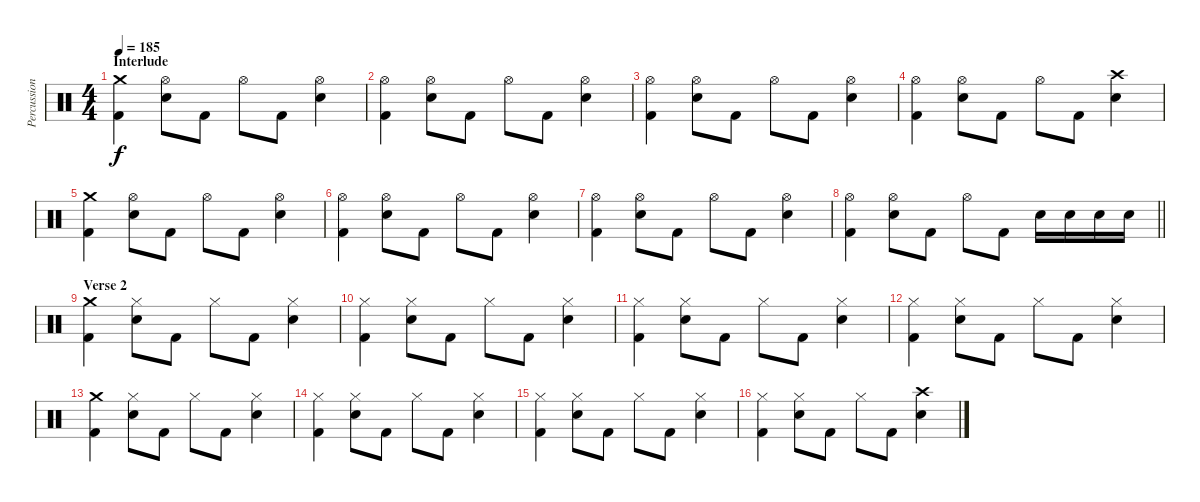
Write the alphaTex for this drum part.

\track ("Percussions" "Percussion") {instrument percussion}
\staff {score}
\articulation defaults
\ts (4 4)
\section ("" "Interlude")
\tempo 185
\clef neutral
\ks c
("Crash medium (hit)" "Kick (hit) 2").4{dy f} ("Hi-Hat (open)" "Electric Snare (hit)").8 "Kick (hit) 2".8 "Hi-Hat (open)".8 "Kick (hit) 2".8 ("Hi-Hat (open)" "Electric Snare (hit)").4 |
("Hi-Hat (open)" "Kick (hit) 2").4 ("Hi-Hat (open)" "Electric Snare (hit)").8 "Kick (hit) 2".8 "Hi-Hat (open)".8 "Kick (hit) 2".8 ("Hi-Hat (open)" "Electric Snare (hit)").4 |
("Hi-Hat (open)" "Kick (hit) 2").4 ("Hi-Hat (open)" "Electric Snare (hit)").8 "Kick (hit) 2".8 "Hi-Hat (open)".8 "Kick (hit) 2".8 ("Hi-Hat (open)" "Electric Snare (hit)").4 |
("Hi-Hat (open)" "Kick (hit) 2").4 ("Hi-Hat (open)" "Electric Snare (hit)").8 "Kick (hit) 2".8 "Hi-Hat (open)".8 "Kick (hit) 2".8 ("Crash high (hit)" "Electric Snare (hit)").4 |
("Crash medium (hit)" "Kick (hit) 2").4 ("Hi-Hat (open)" "Electric Snare (hit)").8 "Kick (hit) 2".8 "Hi-Hat (open)".8 "Kick (hit) 2".8 ("Hi-Hat (open)" "Electric Snare (hit)").4 |
("Hi-Hat (open)" "Kick (hit) 2").4 ("Hi-Hat (open)" "Electric Snare (hit)").8 "Kick (hit) 2".8 "Hi-Hat (open)".8 "Kick (hit) 2".8 ("Hi-Hat (open)" "Electric Snare (hit)").4 |
("Hi-Hat (open)" "Kick (hit) 2").4 ("Hi-Hat (open)" "Electric Snare (hit)").8 "Kick (hit) 2".8 "Hi-Hat (open)".8 "Kick (hit) 2".8 ("Hi-Hat (open)" "Electric Snare (hit)").4 |
\barLineRight lightlight
("Hi-Hat (open)" "Kick (hit) 2").4 ("Hi-Hat (open)" "Electric Snare (hit)").8 "Kick (hit) 2".8 "Hi-Hat (open)".8 "Kick (hit) 2".8 "Electric Snare (hit)".16 "Electric Snare (hit)".16 "Electric Snare (hit)".16 "Electric Snare (hit)".16 |
\section ("" "Verse 2")
("Crash medium (hit)" "Kick (hit) 2").4 ("Hi-Hat (closed)" "Electric Snare (hit)").8 "Kick (hit) 2".8 "Hi-Hat (closed)".8 "Kick (hit) 2".8 ("Hi-Hat (closed)" "Electric Snare (hit)").4 |
("Hi-Hat (closed)" "Kick (hit) 2").4 ("Hi-Hat (closed)" "Electric Snare (hit)").8 "Kick (hit) 2".8 "Hi-Hat (closed)".8 "Kick (hit) 2".8 ("Hi-Hat (closed)" "Electric Snare (hit)").4 |
("Hi-Hat (closed)" "Kick (hit) 2").4 ("Hi-Hat (closed)" "Electric Snare (hit)").8 "Kick (hit) 2".8 "Hi-Hat (closed)".8 "Kick (hit) 2".8 ("Hi-Hat (closed)" "Electric Snare (hit)").4 |
("Hi-Hat (closed)" "Kick (hit) 2").4 ("Hi-Hat (closed)" "Electric Snare (hit)").8 "Kick (hit) 2".8 "Hi-Hat (closed)".8 "Kick (hit) 2".8 ("Hi-Hat (closed)" "Electric Snare (hit)").4 |
("Crash medium (hit)" "Kick (hit) 2").4 ("Hi-Hat (closed)" "Electric Snare (hit)").8 "Kick (hit) 2".8 "Hi-Hat (closed)".8 "Kick (hit) 2".8 ("Hi-Hat (closed)" "Electric Snare (hit)").4 |
("Hi-Hat (closed)" "Kick (hit) 2").4 ("Hi-Hat (closed)" "Electric Snare (hit)").8 "Kick (hit) 2".8 "Hi-Hat (closed)".8 "Kick (hit) 2".8 ("Hi-Hat (closed)" "Electric Snare (hit)").4 |
("Hi-Hat (closed)" "Kick (hit) 2").4 ("Hi-Hat (closed)" "Electric Snare (hit)").8 "Kick (hit) 2".8 "Hi-Hat (closed)".8 "Kick (hit) 2".8 ("Hi-Hat (closed)" "Electric Snare (hit)").4 |
("Hi-Hat (closed)" "Kick (hit) 2").4 ("Hi-Hat (closed)" "Electric Snare (hit)").8 "Kick (hit) 2".8 "Hi-Hat (closed)".8 "Kick (hit) 2".8 ("Crash high (hit)" "Electric Snare (hit)").4
